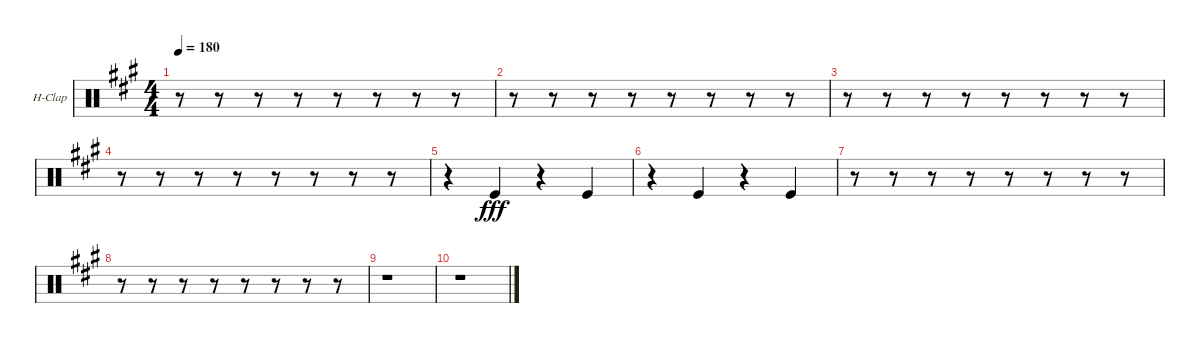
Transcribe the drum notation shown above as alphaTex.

\bracketExtendMode groupsimilarinstruments
\firstSystemTrackNameOrientation horizontal
\otherSystemsTrackNameOrientation horizontal
\track ("Hand Clap" "H-Clap") {instrument percussion}
\staff {score}
\articulation defaults
\ts (4 4)
\tempo 180
\clef neutral
\ks a
r.8{dy fff} r.8 r.8 r.8 r.8 r.8 r.8 r.8 |
r.8 r.8 r.8 r.8 r.8 r.8 r.8 r.8 |
r.8 r.8 r.8 r.8 r.8 r.8 r.8 r.8 |
r.8 r.8 r.8 r.8 r.8 r.8 r.8 r.8 |
r.4 "Kick (hit)".4 r.4 "Kick (hit)".4 |
r.4 "Kick (hit)".4 r.4 "Kick (hit)".4 |
r.8 r.8 r.8 r.8 r.8 r.8 r.8 r.8 |
r.8 r.8 r.8 r.8 r.8 r.8 r.8 r.8 |
r.1 |
r.1
